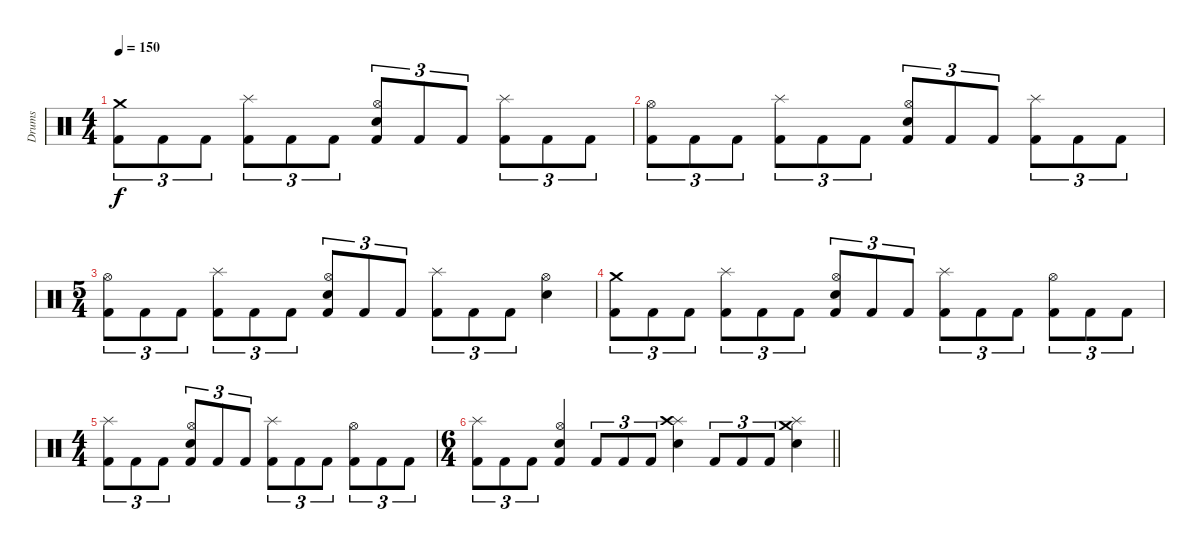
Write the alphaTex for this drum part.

\track ("Drums" "Drums") {instrument percussion}
\staff {score}
\articulation defaults
\ts (4 4)
\tempo 150
\clef neutral
\ks c
("Crash medium (hit)" "Kick (hit) 2").8{tu (3 2) dy f} "Kick (hit) 2".8{tu (3 2)} "Kick (hit) 2".8{tu (3 2)} ("Splash (hit)" "Kick (hit) 2").8{tu (3 2)} "Kick (hit) 2".8{tu (3 2)} "Kick (hit) 2".8{tu (3 2)} ("Hi-Hat (open)" "Electric Snare (hit)" "Kick (hit) 2").8{tu (3 2)} "Kick (hit) 2".8{tu (3 2)} "Kick (hit) 2".8{tu (3 2)} ("Splash (hit)" "Kick (hit) 2").8{tu (3 2)} "Kick (hit) 2".8{tu (3 2)} "Kick (hit) 2".8{tu (3 2)} |
("Hi-Hat (open)" "Kick (hit) 2").8{tu (3 2)} "Kick (hit) 2".8{tu (3 2)} "Kick (hit) 2".8{tu (3 2)} ("Splash (hit)" "Kick (hit) 2").8{tu (3 2)} "Kick (hit) 2".8{tu (3 2)} "Kick (hit) 2".8{tu (3 2)} ("Hi-Hat (open)" "Electric Snare (hit)" "Kick (hit) 2").8{tu (3 2)} "Kick (hit) 2".8{tu (3 2)} "Kick (hit) 2".8{tu (3 2)} ("Splash (hit)" "Kick (hit) 2").8{tu (3 2)} "Kick (hit) 2".8{tu (3 2)} "Kick (hit) 2".8{tu (3 2)} |
\ts (5 4)
("Hi-Hat (open)" "Kick (hit) 2").8{tu (3 2)} "Kick (hit) 2".8{tu (3 2)} "Kick (hit) 2".8{tu (3 2)} ("Splash (hit)" "Kick (hit) 2").8{tu (3 2)} "Kick (hit) 2".8{tu (3 2)} "Kick (hit) 2".8{tu (3 2)} ("Hi-Hat (open)" "Electric Snare (hit)" "Kick (hit) 2").8{tu (3 2)} "Kick (hit) 2".8{tu (3 2)} "Kick (hit) 2".8{tu (3 2)} ("Splash (hit)" "Kick (hit) 2").8{tu (3 2)} "Kick (hit) 2".8{tu (3 2)} "Kick (hit) 2".8{tu (3 2)} ("Hi-Hat (open)" "Electric Snare (hit)").4 |
("Crash medium (hit)" "Kick (hit) 2").8{tu (3 2)} "Kick (hit) 2".8{tu (3 2)} "Kick (hit) 2".8{tu (3 2)} ("Splash (hit)" "Kick (hit) 2").8{tu (3 2)} "Kick (hit) 2".8{tu (3 2)} "Kick (hit) 2".8{tu (3 2)} ("Hi-Hat (open)" "Electric Snare (hit)" "Kick (hit) 2").8{tu (3 2)} "Kick (hit) 2".8{tu (3 2)} "Kick (hit) 2".8{tu (3 2)} ("Splash (hit)" "Kick (hit) 2").8{tu (3 2)} "Kick (hit) 2".8{tu (3 2)} "Kick (hit) 2".8{tu (3 2)} ("Hi-Hat (open)" "Kick (hit) 2").8{tu (3 2)} "Kick (hit) 2".8{tu (3 2)} "Kick (hit) 2".8{tu (3 2)} |
\ts (4 4)
("Splash (hit)" "Kick (hit) 2").8{tu (3 2)} "Kick (hit) 2".8{tu (3 2)} "Kick (hit) 2".8{tu (3 2)} ("Hi-Hat (open)" "Electric Snare (hit)" "Kick (hit) 2").8{tu (3 2)} "Kick (hit) 2".8{tu (3 2)} "Kick (hit) 2".8{tu (3 2)} ("Splash (hit)" "Kick (hit) 2").8{tu (3 2)} "Kick (hit) 2".8{tu (3 2)} "Kick (hit) 2".8{tu (3 2)} ("Hi-Hat (open)" "Kick (hit) 2").8{tu (3 2)} "Kick (hit) 2".8{tu (3 2)} "Kick (hit) 2".8{tu (3 2)} |
\ts (6 4)
\barLineRight lightlight
("Splash (hit)" "Kick (hit) 2").8{tu (3 2)} "Kick (hit) 2".8{tu (3 2)} "Kick (hit) 2".8{tu (3 2)} ("Hi-Hat (open)" "Electric Snare (hit)" "Kick (hit) 2").4 "Kick (hit) 2".8{tu (3 2)} "Kick (hit) 2".8{tu (3 2)} "Kick (hit) 2".8{tu (3 2)} ("Splash (hit)" "Crash high (hit)" "Electric Snare (hit)").4 "Kick (hit) 2".8{tu (3 2)} "Kick (hit) 2".8{tu (3 2)} "Kick (hit) 2".8{tu (3 2)} ("Splash (hit)" "Crash medium (hit)" "Electric Snare (hit)").4
